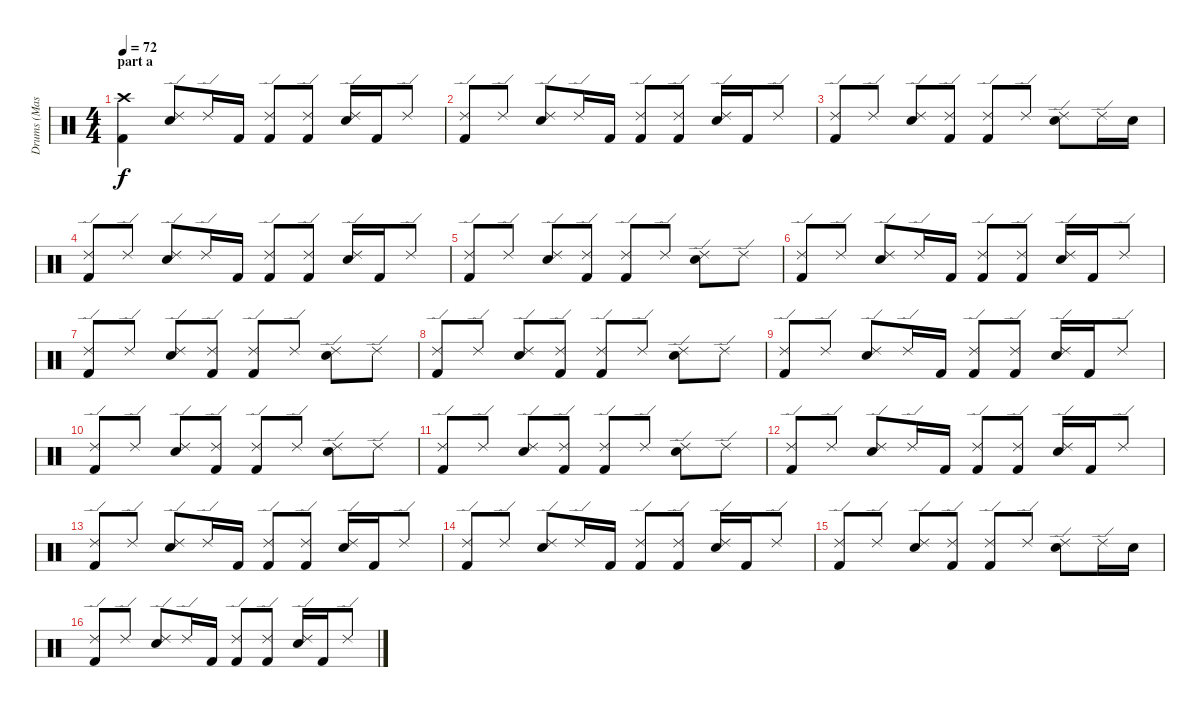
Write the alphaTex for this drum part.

\track ("Drums (Mason)" "Drums (Mas") {instrument percussion}
\staff {score}
\articulation defaults
\ts (4 4)
\section ("" "part a")
\tempo 72
\clef neutral
\ks c
("Crash high (hit)" "Kick (hit) 2").4{dy f} ("Ride (edge) 2" "Electric Snare (hit)").8 "Ride (edge) 2".16 "Kick (hit) 2".16 ("Ride (edge) 2" "Kick (hit) 2").8 ("Ride (edge) 2" "Kick (hit) 2").8 ("Ride (edge) 2" "Electric Snare (hit)").16 "Kick (hit) 2".16 "Ride (edge) 2".8 |
("Ride (edge) 2" "Kick (hit) 2").8 "Ride (edge) 2".8 ("Ride (edge) 2" "Electric Snare (hit)").8 "Ride (edge) 2".16 "Kick (hit) 2".16 ("Ride (edge) 2" "Kick (hit) 2").8 ("Ride (edge) 2" "Kick (hit) 2").8 ("Ride (edge) 2" "Electric Snare (hit)").16 "Kick (hit) 2".16 "Ride (edge) 2".8 |
("Ride (edge) 2" "Kick (hit) 2").8 "Ride (edge) 2".8 ("Ride (edge) 2" "Electric Snare (hit)").8 ("Ride (edge) 2" "Kick (hit) 2").8 ("Ride (edge) 2" "Kick (hit) 2").8 "Ride (edge) 2".8 ("Ride (edge) 2" "Electric Snare (hit)").8 "Ride (edge) 2".16 "Electric Snare (hit)".16 |
("Ride (edge) 2" "Kick (hit) 2").8 "Ride (edge) 2".8 ("Ride (edge) 2" "Electric Snare (hit)").8 "Ride (edge) 2".16 "Kick (hit) 2".16 ("Ride (edge) 2" "Kick (hit) 2").8 ("Ride (edge) 2" "Kick (hit) 2").8 ("Ride (edge) 2" "Electric Snare (hit)").16 "Kick (hit) 2".16 "Ride (edge) 2".8 |
("Ride (edge) 2" "Kick (hit) 2").8 "Ride (edge) 2".8 ("Ride (edge) 2" "Electric Snare (hit)").8 ("Ride (edge) 2" "Kick (hit) 2").8 ("Ride (edge) 2" "Kick (hit) 2").8 "Ride (edge) 2".8 ("Ride (edge) 2" "Electric Snare (hit)").8 "Ride (edge) 2".8 |
("Ride (edge) 2" "Kick (hit) 2").8 "Ride (edge) 2".8 ("Ride (edge) 2" "Electric Snare (hit)").8 "Ride (edge) 2".16 "Kick (hit) 2".16 ("Ride (edge) 2" "Kick (hit) 2").8 ("Ride (edge) 2" "Kick (hit) 2").8 ("Ride (edge) 2" "Electric Snare (hit)").16 "Kick (hit) 2".16 "Ride (edge) 2".8 |
("Ride (edge) 2" "Kick (hit) 2").8 "Ride (edge) 2".8 ("Ride (edge) 2" "Electric Snare (hit)").8 ("Ride (edge) 2" "Kick (hit) 2").8 ("Ride (edge) 2" "Kick (hit) 2").8 "Ride (edge) 2".8 ("Ride (edge) 2" "Electric Snare (hit)").8 "Ride (edge) 2".8 |
("Ride (edge) 2" "Kick (hit) 2").8 "Ride (edge) 2".8 ("Ride (edge) 2" "Electric Snare (hit)").8 ("Ride (edge) 2" "Kick (hit) 2").8 ("Ride (edge) 2" "Kick (hit) 2").8 "Ride (edge) 2".8 ("Ride (edge) 2" "Electric Snare (hit)").8 "Ride (edge) 2".8 |
("Ride (edge) 2" "Kick (hit) 2").8 "Ride (edge) 2".8 ("Ride (edge) 2" "Electric Snare (hit)").8 "Ride (edge) 2".16 "Kick (hit) 2".16 ("Ride (edge) 2" "Kick (hit) 2").8 ("Ride (edge) 2" "Kick (hit) 2").8 ("Ride (edge) 2" "Electric Snare (hit)").16 "Kick (hit) 2".16 "Ride (edge) 2".8 |
("Ride (edge) 2" "Kick (hit) 2").8 "Ride (edge) 2".8 ("Ride (edge) 2" "Electric Snare (hit)").8 ("Ride (edge) 2" "Kick (hit) 2").8 ("Ride (edge) 2" "Kick (hit) 2").8 "Ride (edge) 2".8 ("Ride (edge) 2" "Electric Snare (hit)").8 "Ride (edge) 2".8 |
("Ride (edge) 2" "Kick (hit) 2").8 "Ride (edge) 2".8 ("Ride (edge) 2" "Electric Snare (hit)").8 ("Ride (edge) 2" "Kick (hit) 2").8 ("Ride (edge) 2" "Kick (hit) 2").8 "Ride (edge) 2".8 ("Ride (edge) 2" "Electric Snare (hit)").8 "Ride (edge) 2".8 |
("Ride (edge) 2" "Kick (hit) 2").8 "Ride (edge) 2".8 ("Ride (edge) 2" "Electric Snare (hit)").8 "Ride (edge) 2".16 "Kick (hit) 2".16 ("Ride (edge) 2" "Kick (hit) 2").8 ("Ride (edge) 2" "Kick (hit) 2").8 ("Ride (edge) 2" "Electric Snare (hit)").16 "Kick (hit) 2".16 "Ride (edge) 2".8 |
("Ride (edge) 2" "Kick (hit) 2").8 "Ride (edge) 2".8 ("Ride (edge) 2" "Electric Snare (hit)").8 "Ride (edge) 2".16 "Kick (hit) 2".16 ("Ride (edge) 2" "Kick (hit) 2").8 ("Ride (edge) 2" "Kick (hit) 2").8 ("Ride (edge) 2" "Electric Snare (hit)").16 "Kick (hit) 2".16 "Ride (edge) 2".8 |
("Ride (edge) 2" "Kick (hit) 2").8 "Ride (edge) 2".8 ("Ride (edge) 2" "Electric Snare (hit)").8 "Ride (edge) 2".16 "Kick (hit) 2".16 ("Ride (edge) 2" "Kick (hit) 2").8 ("Ride (edge) 2" "Kick (hit) 2").8 ("Ride (edge) 2" "Electric Snare (hit)").16 "Kick (hit) 2".16 "Ride (edge) 2".8 |
("Ride (edge) 2" "Kick (hit) 2").8 "Ride (edge) 2".8 ("Ride (edge) 2" "Electric Snare (hit)").8 ("Ride (edge) 2" "Kick (hit) 2").8 ("Ride (edge) 2" "Kick (hit) 2").8 "Ride (edge) 2".8 ("Ride (edge) 2" "Electric Snare (hit)").8 "Ride (edge) 2".16 "Electric Snare (hit)".16 |
("Ride (edge) 2" "Kick (hit) 2").8 "Ride (edge) 2".8 ("Ride (edge) 2" "Electric Snare (hit)").8 "Ride (edge) 2".16 "Kick (hit) 2".16 ("Ride (edge) 2" "Kick (hit) 2").8 ("Ride (edge) 2" "Kick (hit) 2").8 ("Ride (edge) 2" "Electric Snare (hit)").16 "Kick (hit) 2".16 "Ride (edge) 2".8
